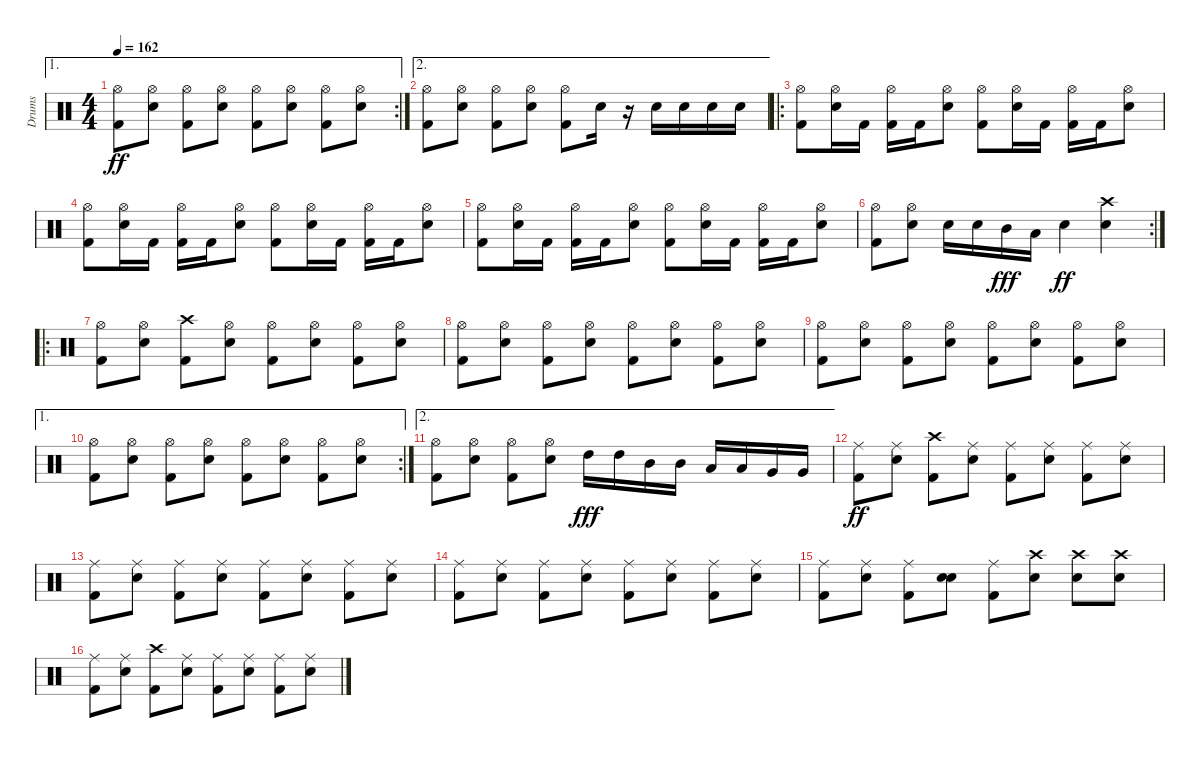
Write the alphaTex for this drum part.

\track ("Drums" "Drums") {instrument percussion}
\staff {score}
\articulation defaults
\ae 1
\rc 2
\ts (4 4)
\tempo 162
\clef neutral
\ks c
("Hi-Hat (open)" "Kick (hit) 2").8{dy ff} ("Hi-Hat (open)" "Electric Snare (hit)").8 ("Hi-Hat (open)" "Kick (hit) 2").8 ("Hi-Hat (open)" "Electric Snare (hit)").8 ("Hi-Hat (open)" "Kick (hit) 2").8 ("Hi-Hat (open)" "Electric Snare (hit)").8 ("Hi-Hat (open)" "Kick (hit) 2").8 ("Hi-Hat (open)" "Electric Snare (hit)").8 |
\ae 2
("Hi-Hat (open)" "Kick (hit) 2").8 ("Hi-Hat (open)" "Electric Snare (hit)").8 ("Hi-Hat (open)" "Kick (hit) 2").8 ("Hi-Hat (open)" "Electric Snare (hit)").8 ("Hi-Hat (open)" "Kick (hit) 2").8 "Electric Snare (hit)".16 r.16 "Electric Snare (hit)".16 "Electric Snare (hit)".16 "Electric Snare (hit)".16 "Electric Snare (hit)".16 |
\ro
("Hi-Hat (open)" "Kick (hit) 2").8 ("Hi-Hat (open)" "Electric Snare (hit)").16 "Kick (hit) 2".16 ("Hi-Hat (open)" "Kick (hit) 2").16 "Kick (hit) 2".16 ("Hi-Hat (open)" "Electric Snare (hit)").8 ("Hi-Hat (open)" "Kick (hit) 2").8 ("Hi-Hat (open)" "Electric Snare (hit)").16 "Kick (hit) 2".16 ("Hi-Hat (open)" "Kick (hit) 2").16 "Kick (hit) 2".16 ("Hi-Hat (open)" "Electric Snare (hit)").8 |
("Hi-Hat (open)" "Kick (hit) 2").8 ("Hi-Hat (open)" "Electric Snare (hit)").16 "Kick (hit) 2".16 ("Hi-Hat (open)" "Kick (hit) 2").16 "Kick (hit) 2".16 ("Hi-Hat (open)" "Electric Snare (hit)").8 ("Hi-Hat (open)" "Kick (hit) 2").8 ("Hi-Hat (open)" "Electric Snare (hit)").16 "Kick (hit) 2".16 ("Hi-Hat (open)" "Kick (hit) 2").16 "Kick (hit) 2".16 ("Hi-Hat (open)" "Electric Snare (hit)").8 |
("Hi-Hat (open)" "Kick (hit) 2").8 ("Hi-Hat (open)" "Electric Snare (hit)").16 "Kick (hit) 2".16 ("Hi-Hat (open)" "Kick (hit) 2").16 "Kick (hit) 2".16 ("Hi-Hat (open)" "Electric Snare (hit)").8 ("Hi-Hat (open)" "Kick (hit) 2").8 ("Hi-Hat (open)" "Electric Snare (hit)").16 "Kick (hit) 2".16 ("Hi-Hat (open)" "Kick (hit) 2").16 "Kick (hit) 2".16 ("Hi-Hat (open)" "Electric Snare (hit)").8 |
\rc 2
("Hi-Hat (open)" "Kick (hit) 2").8 ("Hi-Hat (open)" "Electric Snare (hit)").8 "Electric Snare (hit)".16 "Electric Snare (hit)".16 "Mid Tom (hit)".16{dy fff} "Low Tom (hit)".16 "Electric Snare (hit)".4{dy ff} ("Crash high (hit)" "Electric Snare (hit)").4 |
\ro
("Hi-Hat (open)" "Kick (hit) 2").8 ("Hi-Hat (open)" "Electric Snare (hit)").8 ("Crash high (hit)" "Kick (hit) 2").8 ("Hi-Hat (open)" "Electric Snare (hit)").8 ("Hi-Hat (open)" "Kick (hit) 2").8 ("Hi-Hat (open)" "Electric Snare (hit)").8 ("Hi-Hat (open)" "Kick (hit) 2").8 ("Hi-Hat (open)" "Electric Snare (hit)").8 |
("Hi-Hat (open)" "Kick (hit) 2").8 ("Hi-Hat (open)" "Electric Snare (hit)").8 ("Hi-Hat (open)" "Kick (hit) 2").8 ("Hi-Hat (open)" "Electric Snare (hit)").8 ("Hi-Hat (open)" "Kick (hit) 2").8 ("Hi-Hat (open)" "Electric Snare (hit)").8 ("Hi-Hat (open)" "Kick (hit) 2").8 ("Hi-Hat (open)" "Electric Snare (hit)").8 |
("Hi-Hat (open)" "Kick (hit) 2").8 ("Hi-Hat (open)" "Electric Snare (hit)").8 ("Hi-Hat (open)" "Kick (hit) 2").8 ("Hi-Hat (open)" "Electric Snare (hit)").8 ("Hi-Hat (open)" "Kick (hit) 2").8 ("Hi-Hat (open)" "Electric Snare (hit)").8 ("Hi-Hat (open)" "Kick (hit) 2").8 ("Hi-Hat (open)" "Electric Snare (hit)").8 |
\ae 1
\rc 2
("Hi-Hat (open)" "Kick (hit) 2").8 ("Hi-Hat (open)" "Electric Snare (hit)").8 ("Hi-Hat (open)" "Kick (hit) 2").8 ("Hi-Hat (open)" "Electric Snare (hit)").8 ("Hi-Hat (open)" "Kick (hit) 2").8 ("Hi-Hat (open)" "Electric Snare (hit)").8 ("Hi-Hat (open)" "Kick (hit) 2").8 ("Hi-Hat (open)" "Electric Snare (hit)").8 |
\ae 2
("Hi-Hat (open)" "Kick (hit) 2").8 ("Hi-Hat (open)" "Electric Snare (hit)").8 ("Hi-Hat (open)" "Kick (hit) 2").8 ("Hi-Hat (open)" "Electric Snare (hit)").8 "High Tom (hit)".16{dy fff} "High Tom (hit)".16 "Mid Tom (hit)".16 "Mid Tom (hit)".16 "Low Tom (hit)".16 "Low Tom (hit)".16 "Very Low Tom (hit)".16 "Very Low Tom (hit)".16 |
("Ride (middle)" "Kick (hit) 2").8{dy ff} ("Ride (middle)" "Electric Snare (hit)").8 ("Crash high (hit)" "Kick (hit) 2").8 ("Ride (middle)" "Electric Snare (hit)").8 ("Ride (middle)" "Kick (hit) 2").8 ("Ride (middle)" "Electric Snare (hit)").8 ("Ride (middle)" "Kick (hit) 2").8 ("Ride (middle)" "Electric Snare (hit)").8 |
("Ride (middle)" "Kick (hit) 2").8 ("Ride (middle)" "Electric Snare (hit)").8 ("Ride (middle)" "Kick (hit) 2").8 ("Ride (middle)" "Electric Snare (hit)").8 ("Ride (middle)" "Kick (hit) 2").8 ("Ride (middle)" "Electric Snare (hit)").8 ("Ride (middle)" "Kick (hit) 2").8 ("Ride (middle)" "Electric Snare (hit)").8 |
("Ride (middle)" "Kick (hit) 2").8 ("Ride (middle)" "Electric Snare (hit)").8 ("Ride (middle)" "Kick (hit) 2").8 ("Ride (middle)" "Electric Snare (hit)").8 ("Ride (middle)" "Kick (hit) 2").8 ("Ride (middle)" "Electric Snare (hit)").8 ("Ride (middle)" "Kick (hit) 2").8 ("Ride (middle)" "Electric Snare (hit)").8 |
("Ride (middle)" "Kick (hit) 2").8 ("Ride (middle)" "Electric Snare (hit)").8 ("Ride (middle)" "Kick (hit) 2").8 ("Snare (hit)" "Electric Snare (hit)").8 ("Ride (middle)" "Kick (hit) 2").8 ("Crash high (hit)" "Electric Snare (hit)").8 ("Crash high (hit)" "Electric Snare (hit)").8 ("Crash high (hit)" "Electric Snare (hit)").8 |
("Ride (middle)" "Kick (hit) 2").8 ("Ride (middle)" "Electric Snare (hit)").8 ("Crash high (hit)" "Kick (hit) 2").8 ("Ride (middle)" "Electric Snare (hit)").8 ("Ride (middle)" "Kick (hit) 2").8 ("Ride (middle)" "Electric Snare (hit)").8 ("Ride (middle)" "Kick (hit) 2").8 ("Ride (middle)" "Electric Snare (hit)").8
